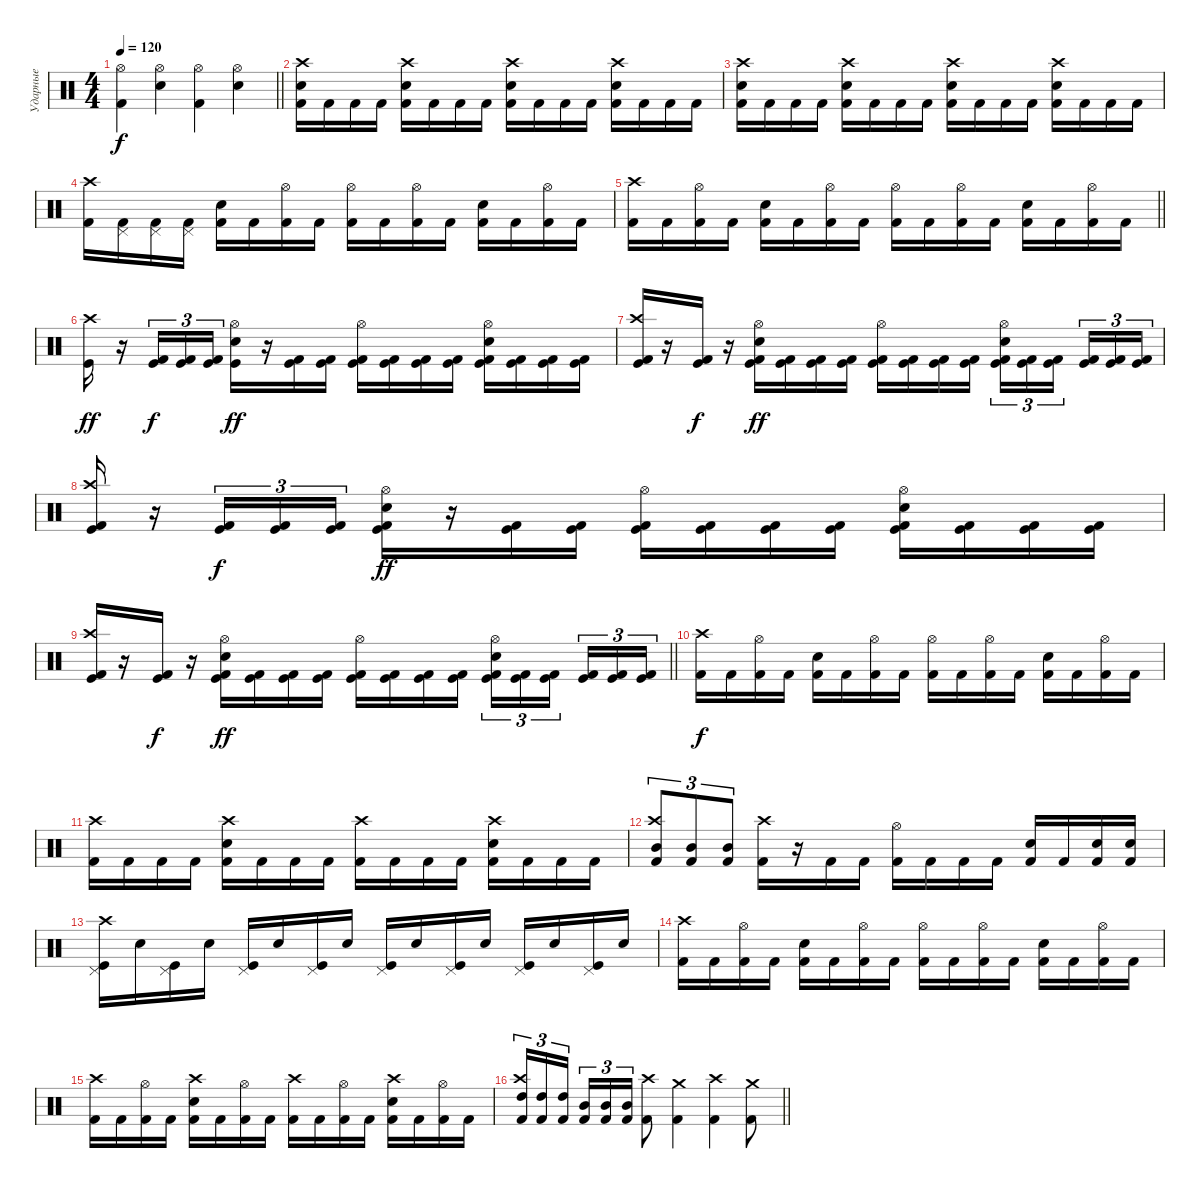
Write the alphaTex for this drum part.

\track ("Ударные" "Ударные") {instrument percussion}
\staff {score}
\articulation defaults
\ts (4 4)
\tempo 120
\clef neutral
\barLineRight lightlight
\ks c
("Hi-Hat (open)" "Kick (hit) 2").4{dy f} ("Hi-Hat (open)" "Electric Snare (hit)").4 ("Hi-Hat (open)" "Kick (hit) 2").4 ("Hi-Hat (open)" "Electric Snare (hit)").4 |
("Crash high (hit)" "Electric Snare (hit)" "Kick (hit) 2").16 "Kick (hit) 2".16 "Kick (hit) 2".16 "Kick (hit) 2".16 ("Crash high (hit)" "Electric Snare (hit)" "Kick (hit) 2").16 "Kick (hit) 2".16 "Kick (hit) 2".16 "Kick (hit) 2".16 ("Crash high (hit)" "Electric Snare (hit)" "Kick (hit) 2").16 "Kick (hit) 2".16 "Kick (hit) 2".16 "Kick (hit) 2".16 ("Crash high (hit)" "Electric Snare (hit)" "Kick (hit) 2").16 "Kick (hit) 2".16 "Kick (hit) 2".16 "Kick (hit) 2".16 |
("Crash high (hit)" "Electric Snare (hit)" "Kick (hit) 2").16 "Kick (hit) 2".16 "Kick (hit) 2".16 "Kick (hit) 2".16 ("Crash high (hit)" "Electric Snare (hit)" "Kick (hit) 2").16 "Kick (hit) 2".16 "Kick (hit) 2".16 "Kick (hit) 2".16 ("Crash high (hit)" "Electric Snare (hit)" "Kick (hit) 2").16 "Kick (hit) 2".16 "Kick (hit) 2".16 "Kick (hit) 2".16 ("Crash high (hit)" "Electric Snare (hit)" "Kick (hit) 2").16 "Kick (hit) 2".16 "Kick (hit) 2".16 "Kick (hit) 2".16 |
("Crash high (hit)" "Kick (hit) 2").16 ("Pedal Hi-Hat (hit)" "Kick (hit) 2").16 ("Pedal Hi-Hat (hit)" "Kick (hit) 2").16 ("Pedal Hi-Hat (hit)" "Kick (hit) 2").16 ("Electric Snare (hit)" "Kick (hit) 2").16 "Kick (hit) 2".16 ("Hi-Hat (open)" "Kick (hit) 2").16 "Kick (hit) 2".16 ("Hi-Hat (open)" "Kick (hit) 2").16 "Kick (hit) 2".16 ("Hi-Hat (open)" "Kick (hit) 2").16 "Kick (hit) 2".16 ("Electric Snare (hit)" "Kick (hit) 2").16 "Kick (hit) 2".16 ("Hi-Hat (open)" "Kick (hit) 2").16 "Kick (hit) 2".16 |
\barLineRight lightlight
("Crash high (hit)" "Kick (hit) 2").16 "Kick (hit) 2".16 ("Hi-Hat (open)" "Kick (hit) 2").16 "Kick (hit) 2".16 ("Electric Snare (hit)" "Kick (hit) 2").16 "Kick (hit) 2".16 ("Hi-Hat (open)" "Kick (hit) 2").16 "Kick (hit) 2".16 ("Hi-Hat (open)" "Kick (hit) 2").16 "Kick (hit) 2".16 ("Hi-Hat (open)" "Kick (hit) 2").16 "Kick (hit) 2".16 ("Electric Snare (hit)" "Kick (hit) 2").16 "Kick (hit) 2".16 ("Hi-Hat (open)" "Kick (hit) 2").16 "Kick (hit) 2".16 |
("Crash high (hit)" "Kick (hit)").16{dy ff} r.16 ("Kick (hit)" "Kick (hit) 2").16{tu (3 2) dy f} ("Kick (hit)" "Kick (hit) 2").16{tu (3 2)} ("Kick (hit)" "Kick (hit) 2").16{tu (3 2)} ("Hi-Hat (open)" "Electric Snare (hit)" "Kick (hit)").16{dy ff} r.16 ("Kick (hit)" "Kick (hit) 2").16 ("Kick (hit)" "Kick (hit) 2").16 ("Hi-Hat (open)" "Kick (hit)" "Kick (hit) 2").16 ("Kick (hit)" "Kick (hit) 2").16 ("Kick (hit)" "Kick (hit) 2").16 ("Kick (hit)" "Kick (hit) 2").16 ("Hi-Hat (open)" "Electric Snare (hit)" "Kick (hit)" "Kick (hit) 2").16 ("Kick (hit)" "Kick (hit) 2").16 ("Kick (hit)" "Kick (hit) 2").16 ("Kick (hit)" "Kick (hit) 2").16 |
("Crash high (hit)" "Kick (hit)" "Kick (hit) 2").16 r.16 ("Kick (hit)" "Kick (hit) 2").16{dy f} r.16 ("Hi-Hat (open)" "Electric Snare (hit)" "Kick (hit)" "Kick (hit) 2").16{dy ff} ("Kick (hit)" "Kick (hit) 2").16 ("Kick (hit)" "Kick (hit) 2").16 ("Kick (hit)" "Kick (hit) 2").16 ("Hi-Hat (open)" "Kick (hit)" "Kick (hit) 2").16 ("Kick (hit)" "Kick (hit) 2").16 ("Kick (hit)" "Kick (hit) 2").16 ("Kick (hit)" "Kick (hit) 2").16 ("Hi-Hat (open)" "Electric Snare (hit)" "Kick (hit)" "Kick (hit) 2").16{tu (3 2)} ("Kick (hit)" "Kick (hit) 2").16{tu (3 2)} ("Kick (hit)" "Kick (hit) 2").16{tu (3 2) beam splitsecondary} ("Kick (hit)" "Kick (hit) 2").16{tu (3 2)} ("Kick (hit)" "Kick (hit) 2").16{tu (3 2)} ("Kick (hit)" "Kick (hit) 2").16{tu (3 2)} |
("Crash high (hit)" "Kick (hit)" "Kick (hit) 2").16 r.16 ("Kick (hit)" "Kick (hit) 2").16{tu (3 2) dy f} ("Kick (hit)" "Kick (hit) 2").16{tu (3 2)} ("Kick (hit)" "Kick (hit) 2").16{tu (3 2)} ("Hi-Hat (open)" "Electric Snare (hit)" "Kick (hit)" "Kick (hit) 2").16{dy ff} r.16 ("Kick (hit)" "Kick (hit) 2").16 ("Kick (hit)" "Kick (hit) 2").16 ("Hi-Hat (open)" "Kick (hit)" "Kick (hit) 2").16 ("Kick (hit)" "Kick (hit) 2").16 ("Kick (hit)" "Kick (hit) 2").16 ("Kick (hit)" "Kick (hit) 2").16 ("Hi-Hat (open)" "Electric Snare (hit)" "Kick (hit)" "Kick (hit) 2").16 ("Kick (hit)" "Kick (hit) 2").16 ("Kick (hit)" "Kick (hit) 2").16 ("Kick (hit)" "Kick (hit) 2").16 |
\barLineRight lightlight
("Crash high (hit)" "Kick (hit)" "Kick (hit) 2").16 r.16 ("Kick (hit)" "Kick (hit) 2").16{dy f} r.16 ("Hi-Hat (open)" "Electric Snare (hit)" "Kick (hit)" "Kick (hit) 2").16{dy ff} ("Kick (hit)" "Kick (hit) 2").16 ("Kick (hit)" "Kick (hit) 2").16 ("Kick (hit)" "Kick (hit) 2").16 ("Hi-Hat (open)" "Kick (hit)" "Kick (hit) 2").16 ("Kick (hit)" "Kick (hit) 2").16 ("Kick (hit)" "Kick (hit) 2").16 ("Kick (hit)" "Kick (hit) 2").16 ("Hi-Hat (open)" "Electric Snare (hit)" "Kick (hit)" "Kick (hit) 2").16{tu (3 2)} ("Kick (hit)" "Kick (hit) 2").16{tu (3 2)} ("Kick (hit)" "Kick (hit) 2").16{tu (3 2) beam splitsecondary} ("Kick (hit)" "Kick (hit) 2").16{tu (3 2)} ("Kick (hit)" "Kick (hit) 2").16{tu (3 2)} ("Kick (hit)" "Kick (hit) 2").16{tu (3 2)} |
("Crash high (hit)" "Kick (hit) 2").16{dy f} "Kick (hit) 2".16 ("Hi-Hat (open)" "Kick (hit) 2").16 "Kick (hit) 2".16 ("Electric Snare (hit)" "Kick (hit) 2").16 "Kick (hit) 2".16 ("Hi-Hat (open)" "Kick (hit) 2").16 "Kick (hit) 2".16 ("Hi-Hat (open)" "Kick (hit) 2").16 "Kick (hit) 2".16 ("Hi-Hat (open)" "Kick (hit) 2").16 "Kick (hit) 2".16 ("Electric Snare (hit)" "Kick (hit) 2").16 "Kick (hit) 2".16 ("Hi-Hat (open)" "Kick (hit) 2").16 "Kick (hit) 2".16 |
("Crash high (hit)" "Kick (hit) 2").16 "Kick (hit) 2".16 "Kick (hit) 2".16 "Kick (hit) 2".16 ("Crash high (hit)" "Electric Snare (hit)" "Kick (hit) 2").16 "Kick (hit) 2".16 "Kick (hit) 2".16 "Kick (hit) 2".16 ("Crash high (hit)" "Kick (hit) 2").16 "Kick (hit) 2".16 "Kick (hit) 2".16 "Kick (hit) 2".16 ("Crash high (hit)" "Electric Snare (hit)" "Kick (hit) 2").16 "Kick (hit) 2".16 "Kick (hit) 2".16 "Kick (hit) 2".16 |
("Crash high (hit)" "Mid Tom (hit)" "Kick (hit) 2").8{tu (3 2)} ("Mid Tom (hit)" "Kick (hit) 2").8{tu (3 2)} ("Mid Tom (hit)" "Kick (hit) 2").8{tu (3 2)} ("Crash high (hit)" "Kick (hit) 2").16 r.16 "Kick (hit) 2".16 "Kick (hit) 2".16 ("Hi-Hat (open)" "Kick (hit) 2").16 "Kick (hit) 2".16 "Kick (hit) 2".16 "Kick (hit) 2".16 ("Electric Snare (hit)" "Kick (hit) 2").16 "Kick (hit) 2".16 ("Electric Snare (hit)" "Kick (hit) 2").16 ("Electric Snare (hit)" "Kick (hit) 2").16 |
("Crash high (hit)" "Kick (hit)" "Pedal Hi-Hat (hit)").16 "Electric Snare (hit)".16 ("Kick (hit)" "Pedal Hi-Hat (hit)").16 "Electric Snare (hit)".16 ("Kick (hit)" "Pedal Hi-Hat (hit)").16 "Electric Snare (hit)".16 ("Kick (hit)" "Pedal Hi-Hat (hit)").16 "Electric Snare (hit)".16 ("Kick (hit)" "Pedal Hi-Hat (hit)").16 "Electric Snare (hit)".16 ("Kick (hit)" "Pedal Hi-Hat (hit)").16 "Electric Snare (hit)".16 ("Kick (hit)" "Pedal Hi-Hat (hit)").16 "Electric Snare (hit)".16 ("Kick (hit)" "Pedal Hi-Hat (hit)").16 "Electric Snare (hit)".16 |
("Crash high (hit)" "Kick (hit) 2").16 "Kick (hit) 2".16 ("Hi-Hat (open)" "Kick (hit) 2").16 "Kick (hit) 2".16 ("Electric Snare (hit)" "Kick (hit) 2").16 "Kick (hit) 2".16 ("Hi-Hat (open)" "Kick (hit) 2").16 "Kick (hit) 2".16 ("Hi-Hat (open)" "Kick (hit) 2").16 "Kick (hit) 2".16 ("Hi-Hat (open)" "Kick (hit) 2").16 "Kick (hit) 2".16 ("Electric Snare (hit)" "Kick (hit) 2").16 "Kick (hit) 2".16 ("Hi-Hat (open)" "Kick (hit) 2").16 "Kick (hit) 2".16 |
("Crash high (hit)" "Kick (hit) 2").16 "Kick (hit) 2".16 ("Hi-Hat (open)" "Kick (hit) 2").16 "Kick (hit) 2".16 ("Crash high (hit)" "Electric Snare (hit)" "Kick (hit) 2").16 "Kick (hit) 2".16 ("Hi-Hat (open)" "Kick (hit) 2").16 "Kick (hit) 2".16 ("Crash high (hit)" "Kick (hit) 2").16 "Kick (hit) 2".16 ("Hi-Hat (open)" "Kick (hit) 2").16 "Kick (hit) 2".16 ("Crash high (hit)" "Electric Snare (hit)" "Kick (hit) 2").16 "Kick (hit) 2".16 ("Hi-Hat (open)" "Kick (hit) 2").16 "Kick (hit) 2".16 |
\barLineRight lightlight
("Crash high (hit)" "High Tom (hit)" "Kick (hit) 2").16{tu (3 2)} ("High Tom (hit)" "Kick (hit) 2").16{tu (3 2)} ("High Tom (hit)" "Kick (hit) 2").16{tu (3 2) beam splitsecondary} ("Mid Tom (hit)" "Kick (hit) 2").16{tu (3 2)} ("Mid Tom (hit)" "Kick (hit) 2").16{tu (3 2)} ("Mid Tom (hit)" "Kick (hit) 2").16{tu (3 2)} ("Crash high (hit)" "Kick (hit) 2").8 ("Crash medium (hit)" "Kick (hit) 2").4 ("Crash high (hit)" "Kick (hit) 2").4 ("Crash medium (hit)" "Kick (hit) 2").8
